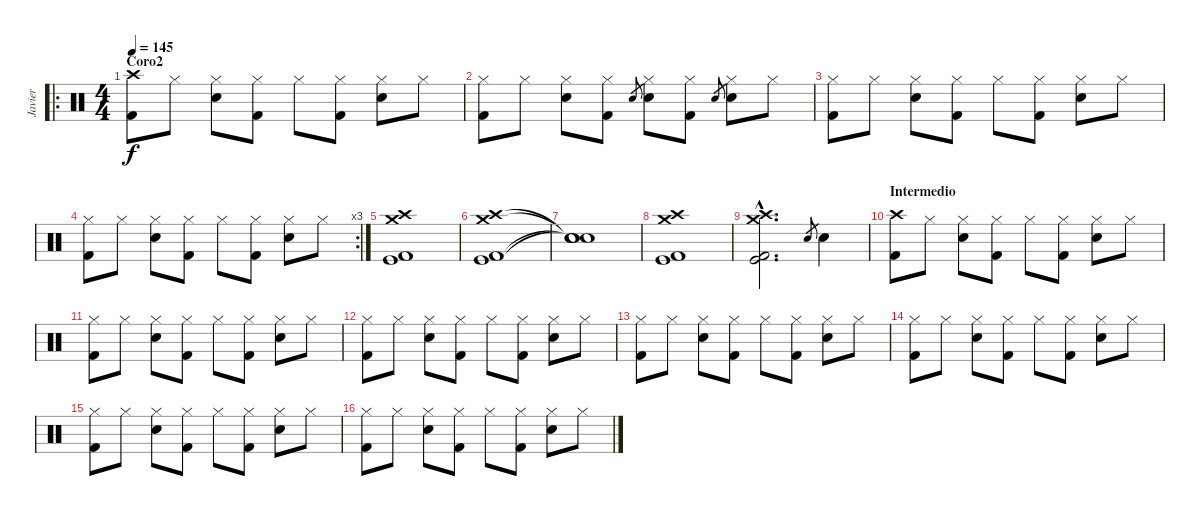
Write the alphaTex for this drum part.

\track ("Javier" "Javier") {instrument percussion}
\staff {score}
\articulation defaults
\ro
\ts (4 4)
\section ("" "Coro2")
\tempo 145
\clef neutral
\ks c
("Crash high (hit)" "Kick (hit) 2").8{dy f} "Hi-Hat (closed)".8 ("Hi-Hat (closed)" "Snare (hit) 2").8 ("Hi-Hat (closed)" "Kick (hit) 2").8 "Hi-Hat (closed)".8 ("Hi-Hat (closed)" "Kick (hit) 2").8 ("Hi-Hat (closed)" "Snare (hit) 2").8 "Hi-Hat (closed)".8 |
("Hi-Hat (closed)" "Kick (hit) 2").8 "Hi-Hat (closed)".8 ("Hi-Hat (closed)" "Snare (hit) 2").8 ("Hi-Hat (closed)" "Kick (hit) 2").8 "Snare (hit) 2".8{gr} ("Hi-Hat (closed)" "Snare (hit) 2").8 ("Hi-Hat (closed)" "Kick (hit) 2").8 "Snare (hit) 2".8{gr} ("Hi-Hat (closed)" "Snare (hit) 2").8 "Hi-Hat (closed)".8 |
("Hi-Hat (closed)" "Kick (hit) 2").8 "Hi-Hat (closed)".8 ("Hi-Hat (closed)" "Snare (hit) 2").8 ("Hi-Hat (closed)" "Kick (hit) 2").8 "Hi-Hat (closed)".8 ("Hi-Hat (closed)" "Kick (hit) 2").8 ("Hi-Hat (closed)" "Snare (hit) 2").8 "Hi-Hat (closed)".8 |
\rc 3
("Hi-Hat (closed)" "Kick (hit) 2").8 "Hi-Hat (closed)".8 ("Hi-Hat (closed)" "Snare (hit) 2").8 ("Hi-Hat (closed)" "Kick (hit) 2").8 "Hi-Hat (closed)".8 ("Hi-Hat (closed)" "Kick (hit) 2").8 ("Hi-Hat (closed)" "Snare (hit) 2").8 "Hi-Hat (closed)".8 |
("Crash high (hit)" "Crash medium (hit)" "Kick (hit) 2" "Kick (hit)").1 |
("Crash high (hit)" "Crash medium (hit)" "Kick (hit) 2" "Kick (hit)").1 |
("Snare (hit)"{t} "Snare (hit)"{t} "Snare (hit)"{t} "Snare (hit)"{t}).1 |
("Crash high (hit)" "Crash medium (hit)" "Kick (hit) 2" "Kick (hit)").1 |
("Crash high (hit)"{hac} "Crash medium (hit)"{hac} "Kick (hit) 2"{hac} "Kick (hit)"{hac}).2{d} "Snare (hit) 2".8{gr} "Snare (hit) 2".4 |
\section ("" "Intermedio")
("Crash high (hit)" "Kick (hit) 2").8 "Hi-Hat (closed)".8 ("Hi-Hat (closed)" "Snare (hit) 2").8 ("Hi-Hat (closed)" "Kick (hit) 2").8 "Hi-Hat (closed)".8 ("Hi-Hat (closed)" "Kick (hit) 2").8 ("Hi-Hat (closed)" "Snare (hit) 2").8 "Hi-Hat (closed)".8 |
("Hi-Hat (closed)" "Kick (hit) 2").8 "Hi-Hat (closed)".8 ("Hi-Hat (closed)" "Snare (hit) 2").8 ("Hi-Hat (closed)" "Kick (hit) 2").8 "Hi-Hat (closed)".8 ("Hi-Hat (closed)" "Kick (hit) 2").8 ("Hi-Hat (closed)" "Snare (hit) 2").8 "Hi-Hat (closed)".8 |
("Hi-Hat (closed)" "Kick (hit) 2").8 "Hi-Hat (closed)".8 ("Hi-Hat (closed)" "Snare (hit) 2").8 ("Hi-Hat (closed)" "Kick (hit) 2").8 "Hi-Hat (closed)".8 ("Hi-Hat (closed)" "Kick (hit) 2").8 ("Hi-Hat (closed)" "Snare (hit) 2").8 "Hi-Hat (closed)".8 |
("Hi-Hat (closed)" "Kick (hit) 2").8 "Hi-Hat (closed)".8 ("Hi-Hat (closed)" "Snare (hit) 2").8 ("Hi-Hat (closed)" "Kick (hit) 2").8 "Hi-Hat (closed)".8 ("Hi-Hat (closed)" "Kick (hit) 2").8 ("Hi-Hat (closed)" "Snare (hit) 2").8 "Hi-Hat (closed)".8 |
("Hi-Hat (closed)" "Kick (hit) 2").8 "Hi-Hat (closed)".8 ("Hi-Hat (closed)" "Snare (hit) 2").8 ("Hi-Hat (closed)" "Kick (hit) 2").8 "Hi-Hat (closed)".8 ("Hi-Hat (closed)" "Kick (hit) 2").8 ("Hi-Hat (closed)" "Snare (hit) 2").8 "Hi-Hat (closed)".8 |
("Hi-Hat (closed)" "Kick (hit) 2").8 "Hi-Hat (closed)".8 ("Hi-Hat (closed)" "Snare (hit) 2").8 ("Hi-Hat (closed)" "Kick (hit) 2").8 "Hi-Hat (closed)".8 ("Hi-Hat (closed)" "Kick (hit) 2").8 ("Hi-Hat (closed)" "Snare (hit) 2").8 "Hi-Hat (closed)".8 |
("Hi-Hat (closed)" "Kick (hit) 2").8 "Hi-Hat (closed)".8 ("Hi-Hat (closed)" "Snare (hit) 2").8 ("Hi-Hat (closed)" "Kick (hit) 2").8 "Hi-Hat (closed)".8 ("Hi-Hat (closed)" "Kick (hit) 2").8 ("Hi-Hat (closed)" "Snare (hit) 2").8 "Hi-Hat (closed)".8
